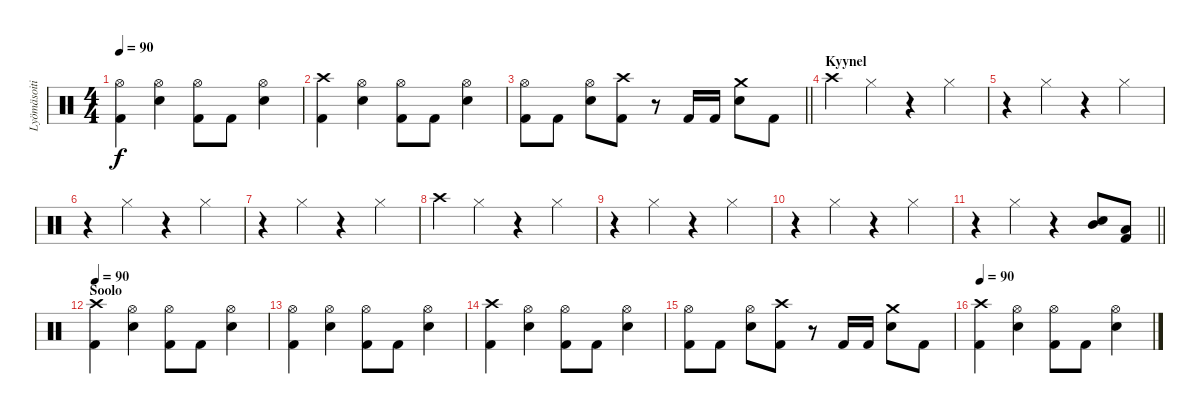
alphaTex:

\track ("Lyömäsoitin" "Lyömäsoiti") {instrument percussion}
\staff {score}
\articulation defaults
\ts (4 4)
\tempo 90
\clef neutral
\ks c
("Hi-Hat (open)" "Kick (hit) 2").4{dy f} ("Hi-Hat (open)" "Snare (hit) 2").4 ("Hi-Hat (open)" "Kick (hit) 2").8 "Kick (hit) 2".8 ("Hi-Hat (open)" "Snare (hit) 2").4 |
("Crash high (hit)" "Kick (hit) 2").4 ("Hi-Hat (open)" "Snare (hit) 2").4 ("Hi-Hat (open)" "Kick (hit) 2").8 "Kick (hit) 2".8 ("Hi-Hat (open)" "Snare (hit) 2").4 |
\barLineRight lightlight
("Hi-Hat (open)" "Kick (hit) 2").8 "Kick (hit) 2".8 ("Hi-Hat (open)" "Snare (hit) 2").8 ("Crash high (hit)" "Kick (hit) 2").8 r.8 "Kick (hit) 2".16 "Kick (hit) 2".16 ("Crash medium (hit)" "Snare (hit) 2").8 "Kick (hit) 2".8 |
\section ("" "Kyynel")
"Crash high (hit)".4 "Hi-Hat (closed)".4 r.4 "Hi-Hat (closed)".4 |
r.4 "Hi-Hat (closed)".4 r.4 "Hi-Hat (closed)".4 |
r.4 "Hi-Hat (closed)".4 r.4 "Hi-Hat (closed)".4 |
r.4 "Hi-Hat (closed)".4 r.4 "Hi-Hat (closed)".4 |
"Crash high (hit)".4 "Hi-Hat (closed)".4 r.4 "Hi-Hat (closed)".4 |
r.4 "Hi-Hat (closed)".4 r.4 "Hi-Hat (closed)".4 |
r.4 "Hi-Hat (closed)".4 r.4 "Hi-Hat (closed)".4 |
\barLineRight lightlight
r.4 "Hi-Hat (closed)".4 r.4 ("Mid Tom (hit)" "Snare (hit) 2").8 ("Low Tom (hit)" "Kick (hit) 2").8 |
\section ("" "Soolo")
\tempo 90
("Crash high (hit)" "Kick (hit) 2").4 ("Hi-Hat (open)" "Snare (hit) 2").4 ("Hi-Hat (open)" "Kick (hit) 2").8 "Kick (hit) 2".8 ("Hi-Hat (open)" "Snare (hit) 2").4 |
("Hi-Hat (open)" "Kick (hit) 2").4 ("Hi-Hat (open)" "Snare (hit) 2").4 ("Hi-Hat (open)" "Kick (hit) 2").8 "Kick (hit) 2".8 ("Hi-Hat (open)" "Snare (hit) 2").4 |
("Crash high (hit)" "Kick (hit) 2").4 ("Hi-Hat (open)" "Snare (hit) 2").4 ("Hi-Hat (open)" "Kick (hit) 2").8 "Kick (hit) 2".8 ("Hi-Hat (open)" "Snare (hit) 2").4 |
("Hi-Hat (open)" "Kick (hit) 2").8 "Kick (hit) 2".8 ("Hi-Hat (open)" "Snare (hit) 2").8 ("Crash high (hit)" "Kick (hit) 2").8 r.8 "Kick (hit) 2".16 "Kick (hit) 2".16 ("Crash medium (hit)" "Snare (hit) 2").8 "Kick (hit) 2".8 |
\tempo 90
("Crash high (hit)" "Kick (hit) 2").4 ("Hi-Hat (open)" "Snare (hit) 2").4 ("Hi-Hat (open)" "Kick (hit) 2").8 "Kick (hit) 2".8 ("Hi-Hat (open)" "Snare (hit) 2").4
